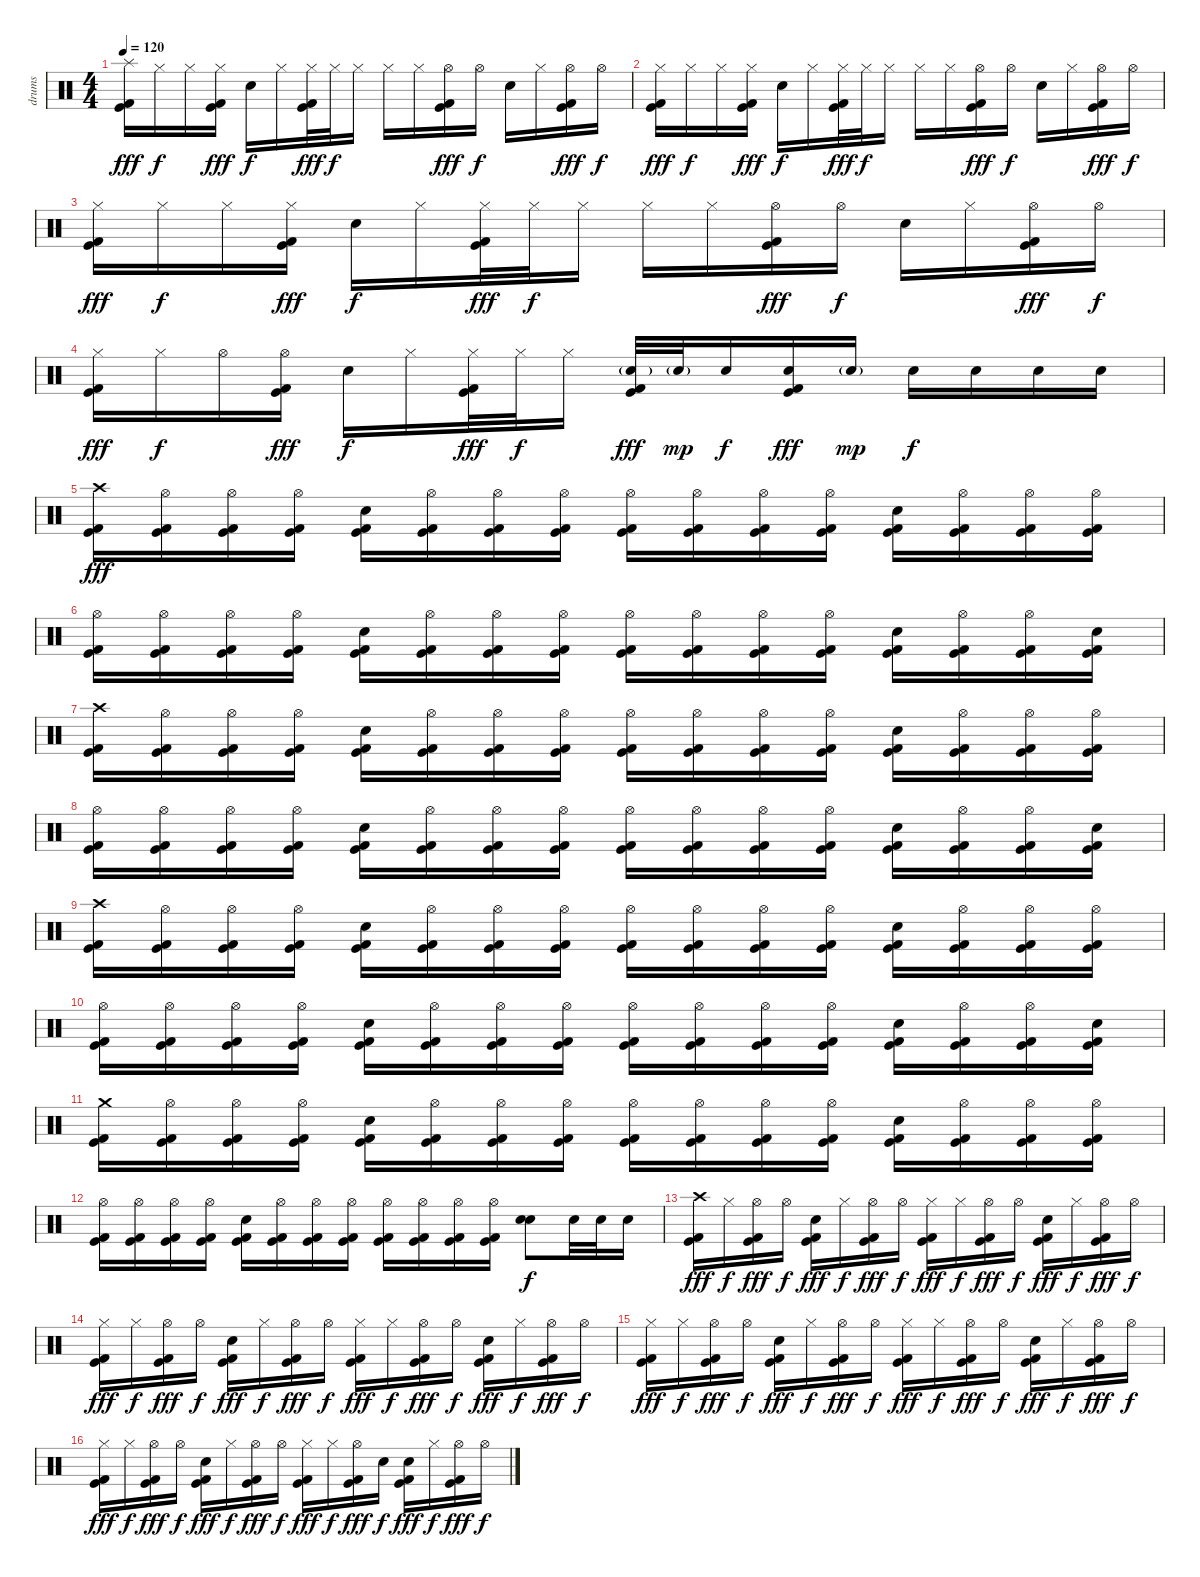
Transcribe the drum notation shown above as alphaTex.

\track ("drums" "drums") {instrument percussion}
\staff {score}
\articulation defaults
\ts (4 4)
\tempo 120
\clef neutral
\ks c
("Splash (hit)" "Kick (hit)" "Kick (hit) 2").16{dy fff} "Hi-Hat (closed)".16{dy f} "Hi-Hat (closed)".16 ("Hi-Hat (closed)" "Kick (hit)" "Kick (hit) 2").16{dy fff} "Electric Snare (hit)".16{dy f} "Hi-Hat (closed)".16 ("Hi-Hat (closed)" "Kick (hit)" "Kick (hit) 2").32{dy fff} "Hi-Hat (closed)".32{dy f} "Hi-Hat (closed)".16 "Hi-Hat (closed)".16 "Hi-Hat (closed)".16 ("Hi-Hat (open)" "Kick (hit)" "Kick (hit) 2").16{dy fff} "Hi-Hat (open)".16{dy f} "Electric Snare (hit)".16 "Hi-Hat (closed)".16 ("Hi-Hat (open)" "Kick (hit)" "Kick (hit) 2").16{dy fff} "Hi-Hat (open)".16{dy f} |
("Hi-Hat (closed)" "Kick (hit)" "Kick (hit) 2").16{dy fff} "Hi-Hat (closed)".16{dy f} "Hi-Hat (closed)".16 ("Hi-Hat (closed)" "Kick (hit)" "Kick (hit) 2").16{dy fff} "Electric Snare (hit)".16{dy f} "Hi-Hat (closed)".16 ("Hi-Hat (closed)" "Kick (hit)" "Kick (hit) 2").32{dy fff} "Hi-Hat (closed)".32{dy f} "Hi-Hat (closed)".16 "Hi-Hat (closed)".16 "Hi-Hat (closed)".16 ("Hi-Hat (open)" "Kick (hit)" "Kick (hit) 2").16{dy fff} "Hi-Hat (open)".16{dy f} "Electric Snare (hit)".16 "Hi-Hat (closed)".16 ("Hi-Hat (open)" "Kick (hit)" "Kick (hit) 2").16{dy fff} "Hi-Hat (open)".16{dy f} |
("Hi-Hat (closed)" "Kick (hit)" "Kick (hit) 2").16{dy fff} "Hi-Hat (closed)".16{dy f} "Hi-Hat (closed)".16 ("Hi-Hat (closed)" "Kick (hit)" "Kick (hit) 2").16{dy fff} "Electric Snare (hit)".16{dy f} "Hi-Hat (closed)".16 ("Hi-Hat (closed)" "Kick (hit)" "Kick (hit) 2").32{dy fff} "Hi-Hat (closed)".32{dy f} "Hi-Hat (closed)".16 "Hi-Hat (closed)".16 "Hi-Hat (closed)".16 ("Hi-Hat (open)" "Kick (hit)" "Kick (hit) 2").16{dy fff} "Hi-Hat (open)".16{dy f} "Electric Snare (hit)".16 "Hi-Hat (closed)".16 ("Hi-Hat (open)" "Kick (hit)" "Kick (hit) 2").16{dy fff} "Hi-Hat (open)".16{dy f} |
("Hi-Hat (closed)" "Kick (hit)" "Kick (hit) 2").16{dy fff} "Hi-Hat (closed)".16{dy f} "Hi-Hat (open)".16 ("Hi-Hat (open)" "Kick (hit)" "Kick (hit) 2").16{dy fff} "Electric Snare (hit)".16{dy f} "Hi-Hat (closed)".16 ("Hi-Hat (closed)" "Kick (hit)" "Kick (hit) 2").32{dy fff} "Hi-Hat (closed)".32{dy f} "Hi-Hat (closed)".16 ("Electric Snare (hit)"{g} "Kick (hit)" "Kick (hit) 2").32{dy fff} "Electric Snare (hit)"{g}.32{dy mp} "Electric Snare (hit)".16{dy f} ("Electric Snare (hit)" "Kick (hit)" "Kick (hit) 2").16{dy fff} "Electric Snare (hit)"{g}.16{dy mp} "Electric Snare (hit)".16{dy f} "Electric Snare (hit)".16 "Electric Snare (hit)".16 "Electric Snare (hit)".16 |
("Crash high (hit)" "Kick (hit)" "Kick (hit) 2").16{dy fff} ("Hi-Hat (open)" "Kick (hit)" "Kick (hit) 2").16 ("Hi-Hat (open)" "Kick (hit)" "Kick (hit) 2").16 ("Hi-Hat (open)" "Kick (hit)" "Kick (hit) 2").16 ("Electric Snare (hit)" "Kick (hit)" "Kick (hit) 2").16 ("Hi-Hat (open)" "Kick (hit)" "Kick (hit) 2").16 ("Hi-Hat (open)" "Kick (hit)" "Kick (hit) 2").16 ("Hi-Hat (open)" "Kick (hit)" "Kick (hit) 2").16 ("Hi-Hat (open)" "Kick (hit)" "Kick (hit) 2").16 ("Hi-Hat (open)" "Kick (hit)" "Kick (hit) 2").16 ("Hi-Hat (open)" "Kick (hit)" "Kick (hit) 2").16 ("Hi-Hat (open)" "Kick (hit)" "Kick (hit) 2").16 ("Electric Snare (hit)" "Kick (hit)" "Kick (hit) 2").16 ("Hi-Hat (open)" "Kick (hit)" "Kick (hit) 2").16 ("Hi-Hat (open)" "Kick (hit)" "Kick (hit) 2").16 ("Hi-Hat (open)" "Kick (hit)" "Kick (hit) 2").16 |
("Hi-Hat (open)" "Kick (hit)" "Kick (hit) 2").16 ("Hi-Hat (open)" "Kick (hit)" "Kick (hit) 2").16 ("Hi-Hat (open)" "Kick (hit)" "Kick (hit) 2").16 ("Hi-Hat (open)" "Kick (hit)" "Kick (hit) 2").16 ("Electric Snare (hit)" "Kick (hit)" "Kick (hit) 2").16 ("Hi-Hat (open)" "Kick (hit)" "Kick (hit) 2").16 ("Hi-Hat (open)" "Kick (hit)" "Kick (hit) 2").16 ("Hi-Hat (open)" "Kick (hit)" "Kick (hit) 2").16 ("Hi-Hat (open)" "Kick (hit)" "Kick (hit) 2").16 ("Hi-Hat (open)" "Kick (hit)" "Kick (hit) 2").16 ("Hi-Hat (open)" "Kick (hit)" "Kick (hit) 2").16 ("Hi-Hat (open)" "Kick (hit)" "Kick (hit) 2").16 ("Electric Snare (hit)" "Kick (hit)" "Kick (hit) 2").16 ("Hi-Hat (open)" "Kick (hit)" "Kick (hit) 2").16 ("Hi-Hat (open)" "Kick (hit)" "Kick (hit) 2").16 ("Electric Snare (hit)" "Kick (hit)" "Kick (hit) 2").16 |
("Crash high (hit)" "Kick (hit)" "Kick (hit) 2").16 ("Hi-Hat (open)" "Kick (hit)" "Kick (hit) 2").16 ("Hi-Hat (open)" "Kick (hit)" "Kick (hit) 2").16 ("Hi-Hat (open)" "Kick (hit)" "Kick (hit) 2").16 ("Electric Snare (hit)" "Kick (hit)" "Kick (hit) 2").16 ("Hi-Hat (open)" "Kick (hit)" "Kick (hit) 2").16 ("Hi-Hat (open)" "Kick (hit)" "Kick (hit) 2").16 ("Hi-Hat (open)" "Kick (hit)" "Kick (hit) 2").16 ("Hi-Hat (open)" "Kick (hit)" "Kick (hit) 2").16 ("Hi-Hat (open)" "Kick (hit)" "Kick (hit) 2").16 ("Hi-Hat (open)" "Kick (hit)" "Kick (hit) 2").16 ("Hi-Hat (open)" "Kick (hit)" "Kick (hit) 2").16 ("Electric Snare (hit)" "Kick (hit)" "Kick (hit) 2").16 ("Hi-Hat (open)" "Kick (hit)" "Kick (hit) 2").16 ("Hi-Hat (open)" "Kick (hit)" "Kick (hit) 2").16 ("Hi-Hat (open)" "Kick (hit)" "Kick (hit) 2").16 |
("Hi-Hat (open)" "Kick (hit)" "Kick (hit) 2").16 ("Hi-Hat (open)" "Kick (hit)" "Kick (hit) 2").16 ("Hi-Hat (open)" "Kick (hit)" "Kick (hit) 2").16 ("Hi-Hat (open)" "Kick (hit)" "Kick (hit) 2").16 ("Electric Snare (hit)" "Kick (hit)" "Kick (hit) 2").16 ("Hi-Hat (open)" "Kick (hit)" "Kick (hit) 2").16 ("Hi-Hat (open)" "Kick (hit)" "Kick (hit) 2").16 ("Hi-Hat (open)" "Kick (hit)" "Kick (hit) 2").16 ("Hi-Hat (open)" "Kick (hit)" "Kick (hit) 2").16 ("Hi-Hat (open)" "Kick (hit)" "Kick (hit) 2").16 ("Hi-Hat (open)" "Kick (hit)" "Kick (hit) 2").16 ("Hi-Hat (open)" "Kick (hit)" "Kick (hit) 2").16 ("Electric Snare (hit)" "Kick (hit)" "Kick (hit) 2").16 ("Hi-Hat (open)" "Kick (hit)" "Kick (hit) 2").16 ("Hi-Hat (open)" "Kick (hit)" "Kick (hit) 2").16 ("Electric Snare (hit)" "Kick (hit)" "Kick (hit) 2").16 |
("Crash high (hit)" "Kick (hit)" "Kick (hit) 2").16 ("Hi-Hat (open)" "Kick (hit)" "Kick (hit) 2").16 ("Hi-Hat (open)" "Kick (hit)" "Kick (hit) 2").16 ("Hi-Hat (open)" "Kick (hit)" "Kick (hit) 2").16 ("Electric Snare (hit)" "Kick (hit)" "Kick (hit) 2").16 ("Hi-Hat (open)" "Kick (hit)" "Kick (hit) 2").16 ("Hi-Hat (open)" "Kick (hit)" "Kick (hit) 2").16 ("Hi-Hat (open)" "Kick (hit)" "Kick (hit) 2").16 ("Hi-Hat (open)" "Kick (hit)" "Kick (hit) 2").16 ("Hi-Hat (open)" "Kick (hit)" "Kick (hit) 2").16 ("Hi-Hat (open)" "Kick (hit)" "Kick (hit) 2").16 ("Hi-Hat (open)" "Kick (hit)" "Kick (hit) 2").16 ("Electric Snare (hit)" "Kick (hit)" "Kick (hit) 2").16 ("Hi-Hat (open)" "Kick (hit)" "Kick (hit) 2").16 ("Hi-Hat (open)" "Kick (hit)" "Kick (hit) 2").16 ("Hi-Hat (open)" "Kick (hit)" "Kick (hit) 2").16 |
("Hi-Hat (open)" "Kick (hit)" "Kick (hit) 2").16 ("Hi-Hat (open)" "Kick (hit)" "Kick (hit) 2").16 ("Hi-Hat (open)" "Kick (hit)" "Kick (hit) 2").16 ("Hi-Hat (open)" "Kick (hit)" "Kick (hit) 2").16 ("Electric Snare (hit)" "Kick (hit)" "Kick (hit) 2").16 ("Hi-Hat (open)" "Kick (hit)" "Kick (hit) 2").16 ("Hi-Hat (open)" "Kick (hit)" "Kick (hit) 2").16 ("Hi-Hat (open)" "Kick (hit)" "Kick (hit) 2").16 ("Hi-Hat (open)" "Kick (hit)" "Kick (hit) 2").16 ("Hi-Hat (open)" "Kick (hit)" "Kick (hit) 2").16 ("Hi-Hat (open)" "Kick (hit)" "Kick (hit) 2").16 ("Hi-Hat (open)" "Kick (hit)" "Kick (hit) 2").16 ("Electric Snare (hit)" "Kick (hit)" "Kick (hit) 2").16 ("Hi-Hat (open)" "Kick (hit)" "Kick (hit) 2").16 ("Hi-Hat (open)" "Kick (hit)" "Kick (hit) 2").16 ("Electric Snare (hit)" "Kick (hit)" "Kick (hit) 2").16 |
("Crash medium (hit)" "Kick (hit)" "Kick (hit) 2").16 ("Hi-Hat (open)" "Kick (hit)" "Kick (hit) 2").16 ("Hi-Hat (open)" "Kick (hit)" "Kick (hit) 2").16 ("Hi-Hat (open)" "Kick (hit)" "Kick (hit) 2").16 ("Electric Snare (hit)" "Kick (hit)" "Kick (hit) 2").16 ("Hi-Hat (open)" "Kick (hit)" "Kick (hit) 2").16 ("Hi-Hat (open)" "Kick (hit)" "Kick (hit) 2").16 ("Hi-Hat (open)" "Kick (hit)" "Kick (hit) 2").16 ("Hi-Hat (open)" "Kick (hit)" "Kick (hit) 2").16 ("Hi-Hat (open)" "Kick (hit)" "Kick (hit) 2").16 ("Hi-Hat (open)" "Kick (hit)" "Kick (hit) 2").16 ("Hi-Hat (open)" "Kick (hit)" "Kick (hit) 2").16 ("Electric Snare (hit)" "Kick (hit)" "Kick (hit) 2").16 ("Hi-Hat (open)" "Kick (hit)" "Kick (hit) 2").16 ("Hi-Hat (open)" "Kick (hit)" "Kick (hit) 2").16 ("Hi-Hat (open)" "Kick (hit)" "Kick (hit) 2").16 |
("Hi-Hat (open)" "Kick (hit)" "Kick (hit) 2").16 ("Hi-Hat (open)" "Kick (hit)" "Kick (hit) 2").16 ("Hi-Hat (open)" "Kick (hit)" "Kick (hit) 2").16 ("Hi-Hat (open)" "Kick (hit)" "Kick (hit) 2").16 ("Electric Snare (hit)" "Kick (hit)" "Kick (hit) 2").16 ("Hi-Hat (open)" "Kick (hit)" "Kick (hit) 2").16 ("Hi-Hat (open)" "Kick (hit)" "Kick (hit) 2").16 ("Hi-Hat (open)" "Kick (hit)" "Kick (hit) 2").16 ("Hi-Hat (open)" "Kick (hit)" "Kick (hit) 2").16 ("Hi-Hat (open)" "Kick (hit)" "Kick (hit) 2").16 ("Hi-Hat (open)" "Kick (hit)" "Kick (hit) 2").16 ("Hi-Hat (open)" "Kick (hit)" "Kick (hit) 2").16 ("Electric Snare (hit)" "Electric Snare (hit)").8{bu 60 dy f} "Electric Snare (hit)".32 "Electric Snare (hit)".32 "Electric Snare (hit)".16 |
("Crash high (hit)" "Kick (hit)" "Kick (hit) 2").16{dy fff} "Hi-Hat (closed)".16{dy f} ("Hi-Hat (open)" "Kick (hit)" "Kick (hit) 2").16{dy fff} "Hi-Hat (open)".16{dy f} ("Electric Snare (hit)" "Kick (hit)" "Kick (hit) 2").16{dy fff} "Hi-Hat (closed)".16{dy f} ("Hi-Hat (open)" "Kick (hit)" "Kick (hit) 2").16{dy fff} "Hi-Hat (open)".16{dy f} ("Hi-Hat (closed)" "Kick (hit)" "Kick (hit) 2").16{dy fff} "Hi-Hat (closed)".16{dy f} ("Hi-Hat (open)" "Kick (hit)" "Kick (hit) 2").16{dy fff} "Hi-Hat (open)".16{dy f} ("Electric Snare (hit)" "Kick (hit)" "Kick (hit) 2").16{dy fff} "Hi-Hat (closed)".16{dy f} ("Hi-Hat (open)" "Kick (hit)" "Kick (hit) 2").16{dy fff} "Hi-Hat (open)".16{dy f} |
("Hi-Hat (closed)" "Kick (hit)" "Kick (hit) 2").16{dy fff} "Hi-Hat (closed)".16{dy f} ("Hi-Hat (open)" "Kick (hit)" "Kick (hit) 2").16{dy fff} "Hi-Hat (open)".16{dy f} ("Electric Snare (hit)" "Kick (hit)" "Kick (hit) 2").16{dy fff} "Hi-Hat (closed)".16{dy f} ("Hi-Hat (open)" "Kick (hit)" "Kick (hit) 2").16{dy fff} "Hi-Hat (open)".16{dy f} ("Hi-Hat (closed)" "Kick (hit)" "Kick (hit) 2").16{dy fff} "Hi-Hat (closed)".16{dy f} ("Hi-Hat (open)" "Kick (hit)" "Kick (hit) 2").16{dy fff} "Hi-Hat (open)".16{dy f} ("Electric Snare (hit)" "Kick (hit)" "Kick (hit) 2").16{dy fff} "Hi-Hat (closed)".16{dy f} ("Hi-Hat (open)" "Kick (hit)" "Kick (hit) 2").16{dy fff} "Hi-Hat (open)".16{dy f} |
("Hi-Hat (closed)" "Kick (hit)" "Kick (hit) 2").16{dy fff} "Hi-Hat (closed)".16{dy f} ("Hi-Hat (open)" "Kick (hit)" "Kick (hit) 2").16{dy fff} "Hi-Hat (open)".16{dy f} ("Electric Snare (hit)" "Kick (hit)" "Kick (hit) 2").16{dy fff} "Hi-Hat (closed)".16{dy f} ("Hi-Hat (open)" "Kick (hit)" "Kick (hit) 2").16{dy fff} "Hi-Hat (open)".16{dy f} ("Hi-Hat (closed)" "Kick (hit)" "Kick (hit) 2").16{dy fff} "Hi-Hat (closed)".16{dy f} ("Hi-Hat (open)" "Kick (hit)" "Kick (hit) 2").16{dy fff} "Hi-Hat (open)".16{dy f} ("Electric Snare (hit)" "Kick (hit)" "Kick (hit) 2").16{dy fff} "Hi-Hat (closed)".16{dy f} ("Hi-Hat (open)" "Kick (hit)" "Kick (hit) 2").16{dy fff} "Hi-Hat (open)".16{dy f} |
("Hi-Hat (closed)" "Kick (hit)" "Kick (hit) 2").16{dy fff} "Hi-Hat (closed)".16{dy f} ("Hi-Hat (open)" "Kick (hit)" "Kick (hit) 2").16{dy fff} "Hi-Hat (open)".16{dy f} ("Electric Snare (hit)" "Kick (hit)" "Kick (hit) 2").16{dy fff} "Hi-Hat (closed)".16{dy f} ("Hi-Hat (open)" "Kick (hit)" "Kick (hit) 2").16{dy fff} "Hi-Hat (open)".16{dy f} ("Hi-Hat (closed)" "Kick (hit)" "Kick (hit) 2").16{dy fff} "Hi-Hat (closed)".16{dy f} ("Hi-Hat (open)" "Kick (hit)" "Kick (hit) 2").16{dy fff} "Electric Snare (hit)".16{dy f} ("Electric Snare (hit)" "Kick (hit)" "Kick (hit) 2").16{dy fff} "Hi-Hat (closed)".16{dy f} ("Hi-Hat (open)" "Kick (hit)" "Kick (hit) 2").16{dy fff} "Hi-Hat (open)".16{dy f}
